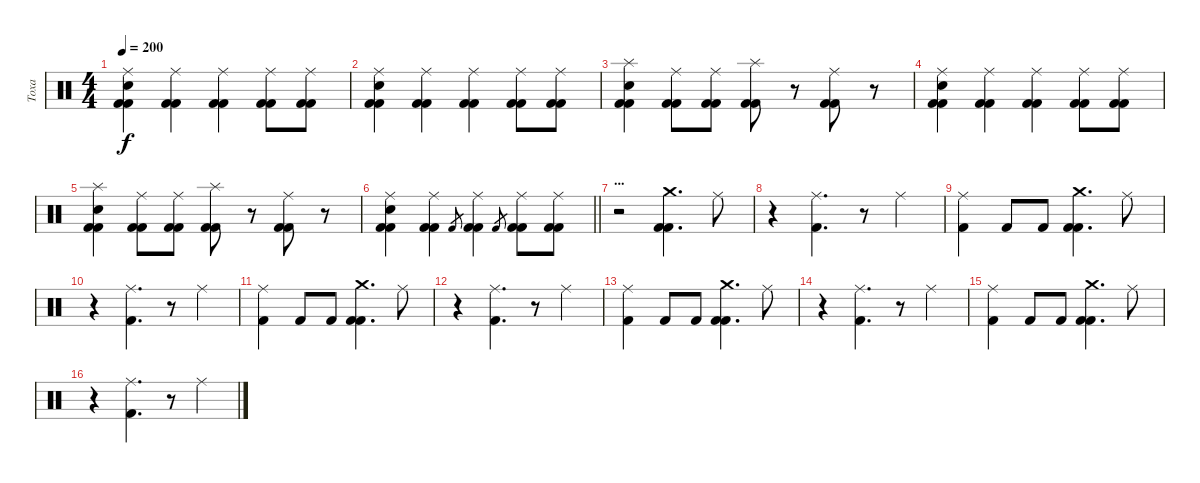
\track ("Toxa" "Toxa") {instrument percussion}
\staff {score}
\articulation defaults
\ts (4 4)
\tempo 200
\clef neutral
\ks c
("Electric Snare (hit)" "Kick (hit) 2" "Kick (hit) 2" "Ride (middle)").4{dy f} ("Kick (hit) 2" "Kick (hit) 2" "Ride (middle)").4 ("Kick (hit) 2" "Kick (hit) 2" "Ride (middle)").4 ("Kick (hit) 2" "Kick (hit) 2" "Ride (middle)").8 ("Kick (hit) 2" "Kick (hit) 2" "Ride (middle)").8 |
("Electric Snare (hit)" "Kick (hit) 2" "Kick (hit) 2" "Ride (middle)").4 ("Kick (hit) 2" "Kick (hit) 2" "Ride (middle)").4 ("Kick (hit) 2" "Kick (hit) 2" "Ride (middle)").4 ("Kick (hit) 2" "Kick (hit) 2" "Ride (middle)").8 ("Kick (hit) 2" "Kick (hit) 2" "Ride (middle)").8 |
("Electric Snare (hit)" "Kick (hit) 2" "Kick (hit) 2" "Splash (hit)").4 ("Ride (middle)" "Kick (hit) 2" "Kick (hit) 2").8 ("Ride (middle)" "Kick (hit) 2" "Kick (hit) 2").8 ("Kick (hit) 2" "Kick (hit) 2" "Splash (hit)").8 r.8 ("Kick (hit) 2" "Kick (hit) 2" "Ride (middle)").8 r.8 |
("Electric Snare (hit)" "Kick (hit) 2" "Kick (hit) 2" "Ride (middle)").4 ("Kick (hit) 2" "Kick (hit) 2" "Ride (middle)").4 ("Kick (hit) 2" "Kick (hit) 2" "Ride (middle)").4 ("Kick (hit) 2" "Kick (hit) 2" "Ride (middle)").8 ("Kick (hit) 2" "Kick (hit) 2" "Ride (middle)").8 |
("Electric Snare (hit)" "Kick (hit) 2" "Kick (hit) 2" "Splash (hit)").4 ("Ride (middle)" "Kick (hit) 2" "Kick (hit) 2").8 ("Ride (middle)" "Kick (hit) 2" "Kick (hit) 2").8 ("Kick (hit) 2" "Kick (hit) 2" "Splash (hit)").8 r.8 ("Kick (hit) 2" "Kick (hit) 2" "Ride (middle)").8 r.8 |
\barLineRight lightlight
("Electric Snare (hit)" "Kick (hit) 2" "Kick (hit) 2" "Ride (middle)").4 ("Kick (hit) 2" "Kick (hit) 2" "Ride (middle)").4 "Kick (hit) 2".8{gr} ("Kick (hit) 2" "Kick (hit) 2" "Ride (middle)").4 "Kick (hit) 2".8{gr} ("Kick (hit) 2" "Kick (hit) 2" "Ride (middle)").8 ("Kick (hit) 2" "Kick (hit) 2" "Ride (middle)").8 |
\section ("" "...")
r.2 ("Crash medium (hit)" "Kick (hit) 2" "Kick (hit) 2").4{d} "Ride (middle)".8 |
r.4 ("Kick (hit) 2" "Ride (middle)").4{d} r.8 "Ride (middle)".4 |
("Kick (hit) 2" "Ride (middle)").4 "Kick (hit) 2".8 "Kick (hit) 2".8 ("Kick (hit) 2" "Crash medium (hit)" "Kick (hit) 2").4{d} "Ride (middle)".8 |
r.4 ("Kick (hit) 2" "Ride (middle)").4{d} r.8 "Ride (middle)".4 |
("Kick (hit) 2" "Ride (middle)").4 "Kick (hit) 2".8 "Kick (hit) 2".8 ("Kick (hit) 2" "Crash medium (hit)" "Kick (hit) 2").4{d} "Ride (middle)".8 |
r.4 ("Kick (hit) 2" "Ride (middle)").4{d} r.8 "Ride (middle)".4 |
("Kick (hit) 2" "Ride (middle)").4 "Kick (hit) 2".8 "Kick (hit) 2".8 ("Kick (hit) 2" "Crash medium (hit)" "Kick (hit) 2").4{d} "Ride (middle)".8 |
r.4 ("Kick (hit) 2" "Ride (middle)").4{d} r.8 "Ride (middle)".4 |
("Kick (hit) 2" "Ride (middle)").4 "Kick (hit) 2".8 "Kick (hit) 2".8 ("Kick (hit) 2" "Crash medium (hit)" "Kick (hit) 2").4{d} "Ride (middle)".8 |
r.4 ("Kick (hit) 2" "Ride (middle)").4{d} r.8 "Ride (middle)".4
